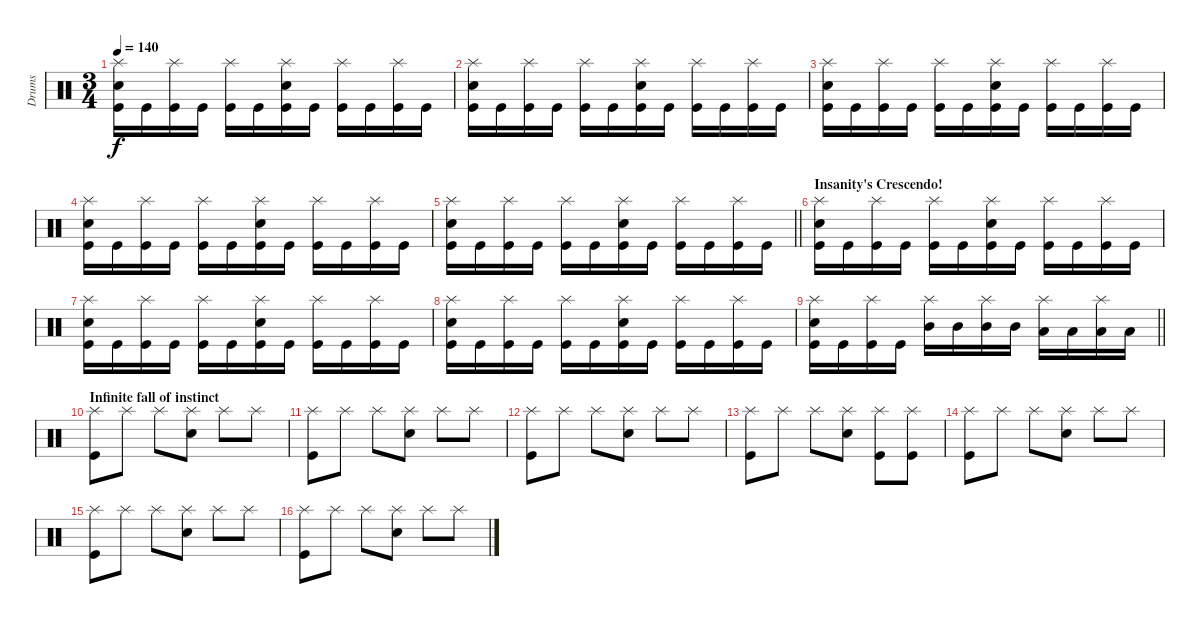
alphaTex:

\track ("Drums" "Drums") {instrument percussion}
\staff {score}
\articulation defaults
\ts (3 4)
\tempo 140
\clef neutral
\ks c
("Kick (hit)" "Snare (hit) 2" "Splash (hit)").16{dy f} "Kick (hit)".16 ("Kick (hit)" "Splash (hit)").16 "Kick (hit)".16 ("Kick (hit)" "Splash (hit)").16 "Kick (hit)".16 ("Kick (hit)" "Snare (hit) 2" "Splash (hit)").16 "Kick (hit)".16 ("Kick (hit)" "Splash (hit)").16 "Kick (hit)".16 ("Kick (hit)" "Splash (hit)").16 "Kick (hit)".16 |
("Kick (hit)" "Snare (hit) 2" "Splash (hit)").16 "Kick (hit)".16 ("Kick (hit)" "Splash (hit)").16 "Kick (hit)".16 ("Kick (hit)" "Splash (hit)").16 "Kick (hit)".16 ("Kick (hit)" "Snare (hit) 2" "Splash (hit)").16 "Kick (hit)".16 ("Kick (hit)" "Splash (hit)").16 "Kick (hit)".16 ("Kick (hit)" "Splash (hit)").16 "Kick (hit)".16 |
("Kick (hit)" "Snare (hit) 2" "Splash (hit)").16 "Kick (hit)".16 ("Kick (hit)" "Splash (hit)").16 "Kick (hit)".16 ("Kick (hit)" "Splash (hit)").16 "Kick (hit)".16 ("Kick (hit)" "Snare (hit) 2" "Splash (hit)").16 "Kick (hit)".16 ("Kick (hit)" "Splash (hit)").16 "Kick (hit)".16 ("Kick (hit)" "Splash (hit)").16 "Kick (hit)".16 |
("Kick (hit)" "Snare (hit) 2" "Splash (hit)").16 "Kick (hit)".16 ("Kick (hit)" "Splash (hit)").16 "Kick (hit)".16 ("Kick (hit)" "Splash (hit)").16 "Kick (hit)".16 ("Kick (hit)" "Snare (hit) 2" "Splash (hit)").16 "Kick (hit)".16 ("Kick (hit)" "Splash (hit)").16 "Kick (hit)".16 ("Kick (hit)" "Splash (hit)").16 "Kick (hit)".16 |
\barLineRight lightlight
("Kick (hit)" "Snare (hit) 2" "Splash (hit)").16 "Kick (hit)".16 ("Kick (hit)" "Splash (hit)").16 "Kick (hit)".16 ("Kick (hit)" "Splash (hit)").16 "Kick (hit)".16 ("Kick (hit)" "Snare (hit) 2" "Splash (hit)").16 "Kick (hit)".16 ("Kick (hit)" "Splash (hit)").16 "Kick (hit)".16 ("Kick (hit)" "Splash (hit)").16 "Kick (hit)".16 |
\section ("" "Insanity's Crescendo!")
("Kick (hit)" "Snare (hit) 2" "Splash (hit)").16 "Kick (hit)".16 ("Kick (hit)" "Splash (hit)").16 "Kick (hit)".16 ("Kick (hit)" "Splash (hit)").16 "Kick (hit)".16 ("Kick (hit)" "Snare (hit) 2" "Splash (hit)").16 "Kick (hit)".16 ("Kick (hit)" "Splash (hit)").16 "Kick (hit)".16 ("Kick (hit)" "Splash (hit)").16 "Kick (hit)".16 |
("Kick (hit)" "Snare (hit) 2" "Splash (hit)").16 "Kick (hit)".16 ("Kick (hit)" "Splash (hit)").16 "Kick (hit)".16 ("Kick (hit)" "Splash (hit)").16 "Kick (hit)".16 ("Kick (hit)" "Snare (hit) 2" "Splash (hit)").16 "Kick (hit)".16 ("Kick (hit)" "Splash (hit)").16 "Kick (hit)".16 ("Kick (hit)" "Splash (hit)").16 "Kick (hit)".16 |
("Kick (hit)" "Snare (hit) 2" "Splash (hit)").16 "Kick (hit)".16 ("Kick (hit)" "Splash (hit)").16 "Kick (hit)".16 ("Kick (hit)" "Splash (hit)").16 "Kick (hit)".16 ("Kick (hit)" "Snare (hit) 2" "Splash (hit)").16 "Kick (hit)".16 ("Kick (hit)" "Splash (hit)").16 "Kick (hit)".16 ("Kick (hit)" "Splash (hit)").16 "Kick (hit)".16 |
\barLineRight lightlight
("Kick (hit)" "Snare (hit) 2" "Splash (hit)").16 "Kick (hit)".16 ("Kick (hit)" "Splash (hit)").16 "Kick (hit)".16 ("Mid Tom (hit)" "Splash (hit)").16 "Mid Tom (hit)".16 ("Mid Tom (hit)" "Splash (hit)").16 "Mid Tom (hit)".16 ("Low Tom (hit)" "Splash (hit)").16 "Low Tom (hit)".16 ("Low Tom (hit)" "Splash (hit)").16 "Low Tom (hit)".16 |
\section ("" "Infinite fall of instinct")
("Kick (hit)" "Splash (hit)").8 "Splash (hit)".8 "Splash (hit)".8 ("Snare (hit) 2" "Splash (hit)").8 "Splash (hit)".8 "Splash (hit)".8 |
("Kick (hit)" "Splash (hit)").8 "Splash (hit)".8 "Splash (hit)".8 ("Snare (hit) 2" "Splash (hit)").8 "Splash (hit)".8 "Splash (hit)".8 |
("Kick (hit)" "Splash (hit)").8 "Splash (hit)".8 "Splash (hit)".8 ("Snare (hit) 2" "Splash (hit)").8 "Splash (hit)".8 "Splash (hit)".8 |
("Kick (hit)" "Splash (hit)").8 "Splash (hit)".8 "Splash (hit)".8 ("Snare (hit) 2" "Splash (hit)").8 ("Kick (hit)" "Splash (hit)").8 ("Kick (hit)" "Splash (hit)").8 |
("Kick (hit)" "Splash (hit)").8 "Splash (hit)".8 "Splash (hit)".8 ("Snare (hit) 2" "Splash (hit)").8 "Splash (hit)".8 "Splash (hit)".8 |
("Kick (hit)" "Splash (hit)").8 "Splash (hit)".8 "Splash (hit)".8 ("Snare (hit) 2" "Splash (hit)").8 "Splash (hit)".8 "Splash (hit)".8 |
("Kick (hit)" "Splash (hit)").8 "Splash (hit)".8 "Splash (hit)".8 ("Snare (hit) 2" "Splash (hit)").8 "Splash (hit)".8 "Splash (hit)".8
